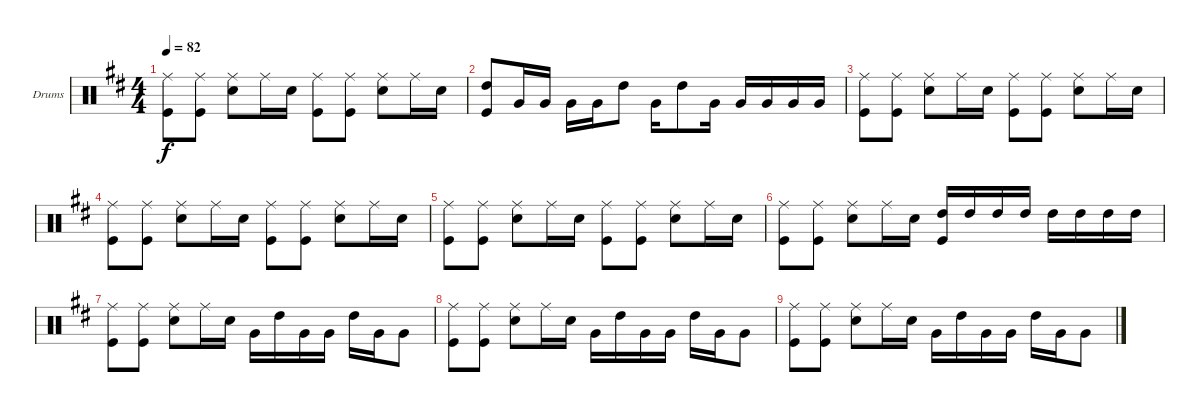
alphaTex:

\bracketExtendMode groupsimilarinstruments
\firstSystemTrackNameOrientation horizontal
\otherSystemsTrackNameOrientation horizontal
\track ("Drumkit" "Drums") {instrument percussion}
\staff {score}
\articulation defaults
\ts (4 4)
\tempo 82
\clef neutral
\ks d
("Ride (middle)" "Kick (hit)").8{dy f} ("Ride (middle)" "Kick (hit)").8 ("Ride (middle)" "Snare (hit) 2").8 "Ride (middle)".16 "Snare (hit) 2".16 ("Ride (middle)" "Kick (hit)").8 ("Ride (middle)" "Kick (hit)").8 ("Ride (middle)" "Snare (hit) 2").8 "Ride (middle)".16 "Snare (hit) 2".16 |
("High Tom (hit)" "Kick (hit)").8 "Very Low Tom (hit)".16 "Very Low Tom (hit)".16 "Very Low Tom (hit)".16 "Very Low Tom (hit)".16 "High Tom (hit)".8 "Very Low Tom (hit)".16 "High Tom (hit)".8 "Very Low Tom (hit)".16 "Very Low Tom (hit)".16 "Very Low Tom (hit)".16 "Very Low Tom (hit)".16 "Very Low Tom (hit)".16 |
("Ride (middle)" "Kick (hit)").8 ("Ride (middle)" "Kick (hit)").8 ("Ride (middle)" "Snare (hit) 2").8 "Ride (middle)".16 "Snare (hit) 2".16 ("Ride (middle)" "Kick (hit)").8 ("Ride (middle)" "Kick (hit)").8 ("Ride (middle)" "Snare (hit) 2").8 "Ride (middle)".16 "Snare (hit) 2".16 |
("Ride (middle)" "Kick (hit)").8 ("Ride (middle)" "Kick (hit)").8 ("Ride (middle)" "Snare (hit) 2").8 "Ride (middle)".16 "Snare (hit) 2".16 ("Ride (middle)" "Kick (hit)").8 ("Ride (middle)" "Kick (hit)").8 ("Ride (middle)" "Snare (hit) 2").8 "Ride (middle)".16 "Snare (hit) 2".16 |
("Ride (middle)" "Kick (hit)").8 ("Ride (middle)" "Kick (hit)").8 ("Ride (middle)" "Snare (hit) 2").8 "Ride (middle)".16 "Snare (hit) 2".16 ("Ride (middle)" "Kick (hit)").8 ("Ride (middle)" "Kick (hit)").8 ("Ride (middle)" "Snare (hit) 2").8 "Ride (middle)".16 "Snare (hit) 2".16 |
("Ride (middle)" "Kick (hit)").8 ("Ride (middle)" "Kick (hit)").8 ("Ride (middle)" "Snare (hit) 2").8 "Ride (middle)".16 "Snare (hit) 2".16 ("High Tom (hit)" "Kick (hit)").16 "High Tom (hit)".16 "High Tom (hit)".16 "High Tom (hit)".16 "High Tom (hit)".16 "High Tom (hit)".16 "High Tom (hit)".16 "High Tom (hit)".16 |
("Ride (middle)" "Kick (hit)").8 ("Ride (middle)" "Kick (hit)").8 ("Ride (middle)" "Snare (hit) 2").8 "Ride (middle)".16 "Snare (hit) 2".16 "Very Low Tom (hit)".16 "High Tom (hit)".16 "Very Low Tom (hit)".16 "Very Low Tom (hit)".16 "High Tom (hit)".16 "Very Low Tom (hit)".16 "Very Low Tom (hit)".8 |
("Ride (middle)" "Kick (hit)").8 ("Ride (middle)" "Kick (hit)").8 ("Ride (middle)" "Snare (hit) 2").8 "Ride (middle)".16 "Snare (hit) 2".16 "Very Low Tom (hit)".16 "High Tom (hit)".16 "Very Low Tom (hit)".16 "Very Low Tom (hit)".16 "High Tom (hit)".16 "Very Low Tom (hit)".16 "Very Low Tom (hit)".8 |
("Ride (middle)" "Kick (hit)").8 ("Ride (middle)" "Kick (hit)").8 ("Ride (middle)" "Snare (hit) 2").8 "Ride (middle)".16 "Snare (hit) 2".16 "Very Low Tom (hit)".16 "High Tom (hit)".16 "Very Low Tom (hit)".16 "Very Low Tom (hit)".16 "High Tom (hit)".16 "Very Low Tom (hit)".16 "Very Low Tom (hit)".8
